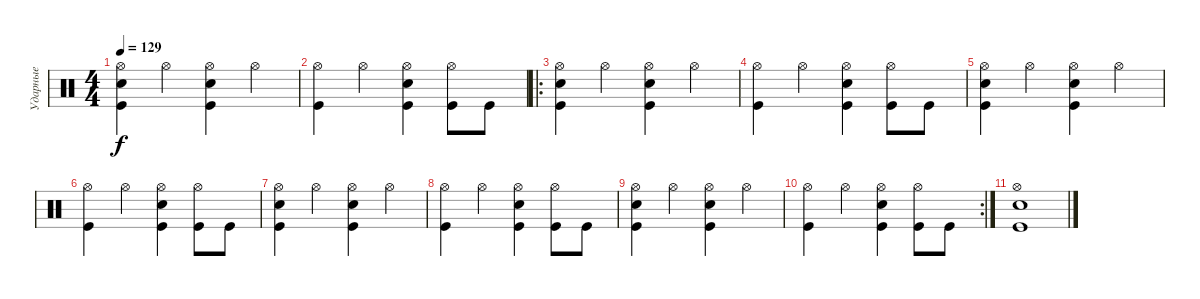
\track ("Ударные" "Ударные") {instrument percussion}
\staff {score}
\articulation defaults
\ts (4 4)
\tempo 129
\clef neutral
\ks c
("Hi-Hat (open)" "Snare (hit) 2" "Kick (hit)").4{dy f} "Hi-Hat (open)".4 ("Kick (hit)" "Hi-Hat (open)" "Snare (hit) 2").4 "Hi-Hat (open)".4 |
("Hi-Hat (open)" "Kick (hit)").4 "Hi-Hat (open)".4 ("Kick (hit)" "Hi-Hat (open)" "Snare (hit) 2").4 ("Hi-Hat (open)" "Kick (hit)").8 "Kick (hit)".8 |
\ro
("Hi-Hat (open)" "Snare (hit) 2" "Kick (hit)").4 "Hi-Hat (open)".4 ("Kick (hit)" "Hi-Hat (open)" "Snare (hit) 2").4 "Hi-Hat (open)".4 |
("Hi-Hat (open)" "Kick (hit)").4 "Hi-Hat (open)".4 ("Kick (hit)" "Hi-Hat (open)" "Snare (hit) 2").4 ("Hi-Hat (open)" "Kick (hit)").8 "Kick (hit)".8 |
("Hi-Hat (open)" "Snare (hit) 2" "Kick (hit)").4 "Hi-Hat (open)".4 ("Kick (hit)" "Hi-Hat (open)" "Snare (hit) 2").4 "Hi-Hat (open)".4 |
("Hi-Hat (open)" "Kick (hit)").4 "Hi-Hat (open)".4 ("Kick (hit)" "Hi-Hat (open)" "Snare (hit) 2").4 ("Hi-Hat (open)" "Kick (hit)").8 "Kick (hit)".8 |
("Hi-Hat (open)" "Snare (hit) 2" "Kick (hit)").4 "Hi-Hat (open)".4 ("Kick (hit)" "Hi-Hat (open)" "Snare (hit) 2").4 "Hi-Hat (open)".4 |
("Hi-Hat (open)" "Kick (hit)").4 "Hi-Hat (open)".4 ("Kick (hit)" "Hi-Hat (open)" "Snare (hit) 2").4 ("Hi-Hat (open)" "Kick (hit)").8 "Kick (hit)".8 |
("Hi-Hat (open)" "Snare (hit) 2" "Kick (hit)").4 "Hi-Hat (open)".4 ("Kick (hit)" "Hi-Hat (open)" "Snare (hit) 2").4 "Hi-Hat (open)".4 |
\rc 2
("Hi-Hat (open)" "Kick (hit)").4 "Hi-Hat (open)".4 ("Kick (hit)" "Hi-Hat (open)" "Snare (hit) 2").4 ("Hi-Hat (open)" "Kick (hit)").8 "Kick (hit)".8 |
("Kick (hit)" "Hi-Hat (open)" "Snare (hit) 2").1
